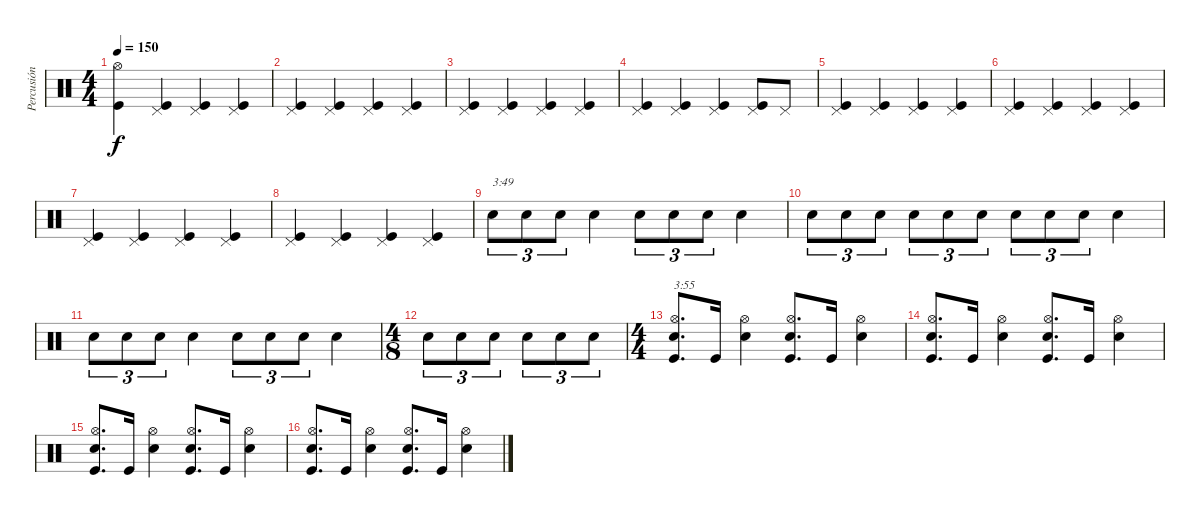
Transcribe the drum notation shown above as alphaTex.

\track ("Percusión" "Percusión") {instrument percussion}
\staff {score}
\articulation defaults
\ts (4 4)
\tempo 150
\clef neutral
\ks c
("Kick (hit)" "Hi-Hat (open)").4{dy f} ("Kick (hit)" "Pedal Hi-Hat (hit)").4 ("Kick (hit)" "Pedal Hi-Hat (hit)").4 ("Kick (hit)" "Pedal Hi-Hat (hit)").4 |
("Kick (hit)" "Pedal Hi-Hat (hit)").4 ("Kick (hit)" "Pedal Hi-Hat (hit)").4 ("Kick (hit)" "Pedal Hi-Hat (hit)").4 ("Kick (hit)" "Pedal Hi-Hat (hit)").4 |
("Kick (hit)" "Pedal Hi-Hat (hit)").4 ("Kick (hit)" "Pedal Hi-Hat (hit)").4 ("Kick (hit)" "Pedal Hi-Hat (hit)").4 ("Kick (hit)" "Pedal Hi-Hat (hit)").4 |
("Kick (hit)" "Pedal Hi-Hat (hit)").4 ("Kick (hit)" "Pedal Hi-Hat (hit)").4 ("Kick (hit)" "Pedal Hi-Hat (hit)").4 ("Kick (hit)" "Pedal Hi-Hat (hit)").8 "Pedal Hi-Hat (hit)".8 |
("Kick (hit)" "Pedal Hi-Hat (hit)").4 ("Kick (hit)" "Pedal Hi-Hat (hit)").4 ("Kick (hit)" "Pedal Hi-Hat (hit)").4 ("Kick (hit)" "Pedal Hi-Hat (hit)").4 |
("Kick (hit)" "Pedal Hi-Hat (hit)").4 ("Kick (hit)" "Pedal Hi-Hat (hit)").4 ("Kick (hit)" "Pedal Hi-Hat (hit)").4 ("Kick (hit)" "Pedal Hi-Hat (hit)").4 |
("Kick (hit)" "Pedal Hi-Hat (hit)").4 ("Kick (hit)" "Pedal Hi-Hat (hit)").4 ("Kick (hit)" "Pedal Hi-Hat (hit)").4 ("Kick (hit)" "Pedal Hi-Hat (hit)").4 |
("Kick (hit)" "Pedal Hi-Hat (hit)").4 ("Kick (hit)" "Pedal Hi-Hat (hit)").4 ("Kick (hit)" "Pedal Hi-Hat (hit)").4 ("Kick (hit)" "Pedal Hi-Hat (hit)").4 |
"Snare (hit) 2".8{tu (3 2) txt "3:49"} "Snare (hit) 2".8{tu (3 2)} "Snare (hit) 2".8{tu (3 2)} "Snare (hit) 2".4 "Snare (hit) 2".8{tu (3 2)} "Snare (hit) 2".8{tu (3 2)} "Snare (hit) 2".8{tu (3 2)} "Snare (hit) 2".4 |
"Snare (hit) 2".8{tu (3 2)} "Snare (hit) 2".8{tu (3 2)} "Snare (hit) 2".8{tu (3 2)} "Snare (hit) 2".8{tu (3 2)} "Snare (hit) 2".8{tu (3 2)} "Snare (hit) 2".8{tu (3 2)} "Snare (hit) 2".8{tu (3 2)} "Snare (hit) 2".8{tu (3 2)} "Snare (hit) 2".8{tu (3 2)} "Snare (hit) 2".4 |
"Snare (hit) 2".8{tu (3 2)} "Snare (hit) 2".8{tu (3 2)} "Snare (hit) 2".8{tu (3 2)} "Snare (hit) 2".4 "Snare (hit) 2".8{tu (3 2)} "Snare (hit) 2".8{tu (3 2)} "Snare (hit) 2".8{tu (3 2)} "Snare (hit) 2".4 |
\ts (4 8)
"Snare (hit) 2".8{tu (3 2)} "Snare (hit) 2".8{tu (3 2)} "Snare (hit) 2".8{tu (3 2)} "Snare (hit) 2".8{tu (3 2)} "Snare (hit) 2".8{tu (3 2)} "Snare (hit) 2".8{tu (3 2)} |
\ts (4 4)
("Kick (hit)" "Snare (hit) 2" "Hi-Hat (open)").8{d txt "3:55"} "Kick (hit)".16 ("Snare (hit) 2" "Hi-Hat (open)").4 ("Kick (hit)" "Snare (hit) 2" "Hi-Hat (open)").8{d} "Kick (hit)".16 ("Snare (hit) 2" "Hi-Hat (open)").4 |
("Kick (hit)" "Snare (hit) 2" "Hi-Hat (open)").8{d} "Kick (hit)".16 ("Snare (hit) 2" "Hi-Hat (open)").4 ("Kick (hit)" "Snare (hit) 2" "Hi-Hat (open)").8{d} "Kick (hit)".16 ("Snare (hit) 2" "Hi-Hat (open)").4 |
("Kick (hit)" "Snare (hit) 2" "Hi-Hat (open)").8{d} "Kick (hit)".16 ("Snare (hit) 2" "Hi-Hat (open)").4 ("Kick (hit)" "Snare (hit) 2" "Hi-Hat (open)").8{d} "Kick (hit)".16 ("Snare (hit) 2" "Hi-Hat (open)").4 |
("Kick (hit)" "Snare (hit) 2" "Hi-Hat (open)").8{d} "Kick (hit)".16 ("Snare (hit) 2" "Hi-Hat (open)").4 ("Kick (hit)" "Snare (hit) 2" "Hi-Hat (open)").8{d} "Kick (hit)".16 ("Snare (hit) 2" "Hi-Hat (open)").4
